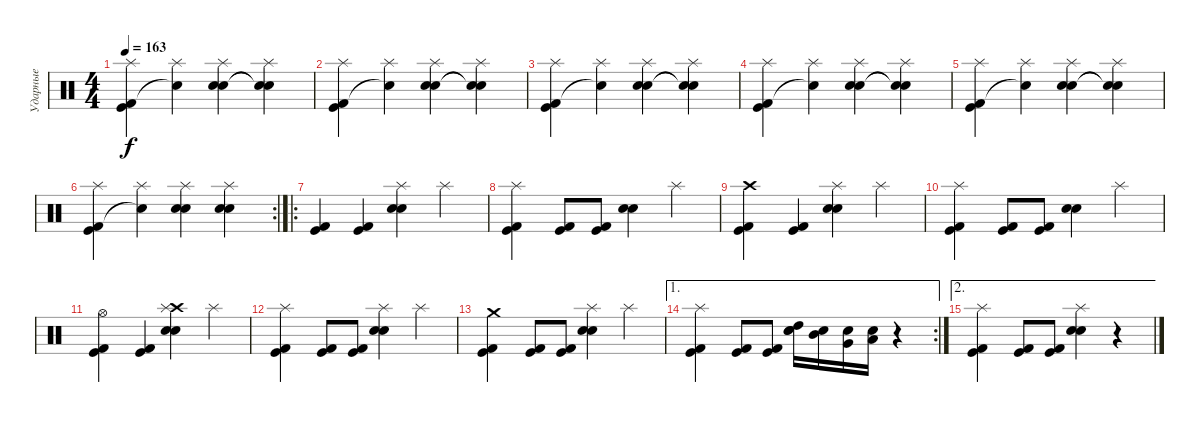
\track ("Ударные" "Ударные") {instrument percussion}
\staff {score}
\articulation defaults
\ts (4 4)
\tempo 163
\clef neutral
\ks c
("Splash (hit)" "Kick (hit) 2" "Kick (hit)").4{dy f} ("Splash (hit)" "Snare (hit)"{t}).4 ("Splash (hit)" "Electric Snare (hit)" "Snare (hit) 2").4 ("Splash (hit)" "Snare (hit)"{t} "Snare (hit)"{t}).4 |
("Splash (hit)" "Kick (hit) 2" "Kick (hit)").4 ("Splash (hit)" "Snare (hit)"{t}).4 ("Splash (hit)" "Electric Snare (hit)" "Snare (hit) 2").4 ("Splash (hit)" "Snare (hit)"{t} "Snare (hit)"{t}).4 |
("Splash (hit)" "Kick (hit) 2" "Kick (hit)").4 ("Splash (hit)" "Snare (hit)"{t}).4 ("Splash (hit)" "Electric Snare (hit)" "Snare (hit) 2").4 ("Splash (hit)" "Snare (hit)"{t} "Snare (hit)"{t}).4 |
("Splash (hit)" "Kick (hit) 2" "Kick (hit)").4 ("Splash (hit)" "Snare (hit)"{t}).4 ("Splash (hit)" "Electric Snare (hit)" "Snare (hit) 2").4 ("Splash (hit)" "Snare (hit)"{t} "Snare (hit)"{t}).4 |
("Splash (hit)" "Kick (hit) 2" "Kick (hit)").4 ("Splash (hit)" "Snare (hit)"{t}).4 ("Splash (hit)" "Electric Snare (hit)" "Snare (hit) 2").4 ("Splash (hit)" "Snare (hit)"{t} "Snare (hit)"{t}).4 |
\rc 2
("Splash (hit)" "Kick (hit) 2" "Kick (hit)").4 ("Splash (hit)" "Snare (hit)"{t}).4 ("Splash (hit)" "Electric Snare (hit)" "Snare (hit) 2").4 ("Splash (hit)" "Electric Snare (hit)" "Snare (hit) 2").4 |
\ro
("Kick (hit)" "Kick (hit) 2").4 ("Kick (hit)" "Kick (hit) 2").4 ("Splash (hit)" "Electric Snare (hit)" "Snare (hit) 2").4 "Splash (hit)".4 |
("Splash (hit)" "Kick (hit)" "Kick (hit) 2").4 ("Kick (hit)" "Kick (hit) 2").8 ("Kick (hit)" "Kick (hit) 2").8 ("Electric Snare (hit)" "Snare (hit) 2").4 "Splash (hit)".4 |
("Crash high (hit)" "Kick (hit)" "Kick (hit) 2").4 ("Kick (hit)" "Kick (hit) 2").4 ("Splash (hit)" "Electric Snare (hit)" "Snare (hit) 2").4 "Splash (hit)".4 |
("Splash (hit)" "Kick (hit)" "Kick (hit) 2").4 ("Kick (hit)" "Kick (hit) 2").8 ("Kick (hit)" "Kick (hit) 2").8 ("Electric Snare (hit)" "Snare (hit) 2").4 "Splash (hit)".4 |
("Hi-Hat (open)" "Kick (hit)" "Kick (hit) 2").4 ("Kick (hit)" "Kick (hit) 2").4 ("Crash high (hit)" "Splash (hit)" "Electric Snare (hit)" "Snare (hit) 2").4 "Splash (hit)".4 |
("Splash (hit)" "Kick (hit)" "Kick (hit) 2").4 ("Kick (hit)" "Kick (hit) 2").8 ("Kick (hit)" "Kick (hit) 2").8 ("Splash (hit)" "Electric Snare (hit)" "Snare (hit) 2").4 "Splash (hit)".4 |
("Crash medium (hit)" "Kick (hit)" "Kick (hit) 2").4 ("Kick (hit)" "Kick (hit) 2").8 ("Kick (hit)" "Kick (hit) 2").8 ("Splash (hit)" "Electric Snare (hit)" "Snare (hit) 2").4 "Splash (hit)".4 |
\ae 1
\rc 2
("Splash (hit)" "Kick (hit)" "Kick (hit) 2").4 ("Kick (hit)" "Kick (hit) 2").8 ("Kick (hit)" "Kick (hit) 2").8 ("High Tom (hit)" "Electric Snare (hit)" "Snare (hit) 2").16 ("Mid Tom (hit)" "Electric Snare (hit)").16 ("Very Low Tom (hit)" "Electric Snare (hit)").16 ("Low Floor Tom (hit)" "Electric Snare (hit)").16 r.4 |
\ae 2
("Splash (hit)" "Kick (hit)" "Kick (hit) 2").4 ("Kick (hit)" "Kick (hit) 2").8 ("Kick (hit)" "Kick (hit) 2").8 ("Splash (hit)" "Electric Snare (hit)" "Snare (hit) 2").4 r.4
